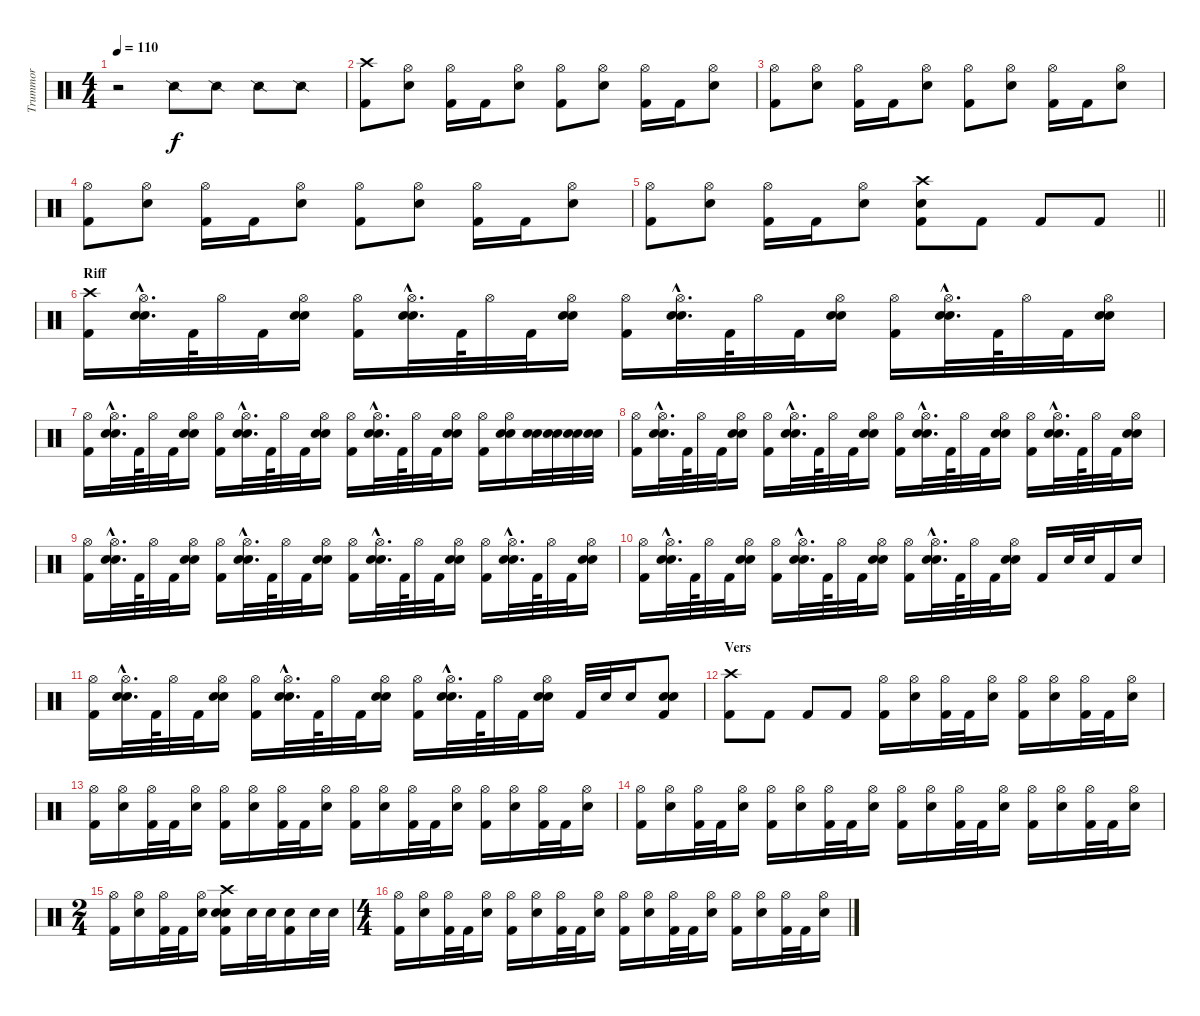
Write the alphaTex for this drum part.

\track ("Trummor" "Trummor") {instrument percussion}
\staff {score}
\articulation defaults
\ts (4 4)
\tempo 110
\clef neutral
\ks c
r.2{dy f} "Snare (side stick) 2".8 "Snare (side stick) 2".8 "Snare (side stick) 2".8 "Snare (side stick) 2".8 |
("Crash high (hit)" "Kick (hit) 2").8 ("Hi-Hat (open)" "Electric Snare (hit)").8 ("Hi-Hat (open)" "Kick (hit) 2").16 "Kick (hit) 2".16 ("Hi-Hat (open)" "Electric Snare (hit)").8 ("Hi-Hat (open)" "Kick (hit) 2").8 ("Hi-Hat (open)" "Electric Snare (hit)").8 ("Hi-Hat (open)" "Kick (hit) 2").16 "Kick (hit) 2".16 ("Hi-Hat (open)" "Electric Snare (hit)").8 |
("Hi-Hat (open)" "Kick (hit) 2").8 ("Hi-Hat (open)" "Electric Snare (hit)").8 ("Hi-Hat (open)" "Kick (hit) 2").16 "Kick (hit) 2".16 ("Hi-Hat (open)" "Electric Snare (hit)").8 ("Hi-Hat (open)" "Kick (hit) 2").8 ("Hi-Hat (open)" "Electric Snare (hit)").8 ("Hi-Hat (open)" "Kick (hit) 2").16 "Kick (hit) 2".16 ("Hi-Hat (open)" "Electric Snare (hit)").8 |
("Hi-Hat (open)" "Kick (hit) 2").8 ("Hi-Hat (open)" "Electric Snare (hit)").8 ("Hi-Hat (open)" "Kick (hit) 2").16 "Kick (hit) 2".16 ("Hi-Hat (open)" "Electric Snare (hit)").8 ("Hi-Hat (open)" "Kick (hit) 2").8 ("Hi-Hat (open)" "Electric Snare (hit)").8 ("Hi-Hat (open)" "Kick (hit) 2").16 "Kick (hit) 2".16 ("Hi-Hat (open)" "Electric Snare (hit)").8 |
\barLineRight lightlight
("Hi-Hat (open)" "Kick (hit) 2").8 ("Hi-Hat (open)" "Electric Snare (hit)").8 ("Hi-Hat (open)" "Kick (hit) 2").16 "Kick (hit) 2".16 ("Hi-Hat (open)" "Electric Snare (hit)").8 ("Crash high (hit)" "Electric Snare (hit)" "Kick (hit) 2").8 "Kick (hit) 2".8 "Kick (hit) 2".8 "Kick (hit) 2".8 |
\section ("" "Riff")
("Crash high (hit)" "Kick (hit) 2").16 ("Hi-Hat (open)"{hac} "Electric Snare (hit)"{hac} "Electric Snare (hit)"{hac}).32{d} "Kick (hit) 2".64 "Hi-Hat (open)".32 "Kick (hit) 2".32 ("Hi-Hat (open)" "Electric Snare (hit)" "Electric Snare (hit)").16 ("Hi-Hat (open)" "Kick (hit) 2").16 ("Hi-Hat (open)"{hac} "Electric Snare (hit)"{hac} "Electric Snare (hit)"{hac}).32{d} "Kick (hit) 2".64 "Hi-Hat (open)".32 "Kick (hit) 2".32 ("Hi-Hat (open)" "Electric Snare (hit)" "Electric Snare (hit)").16 ("Hi-Hat (open)" "Kick (hit) 2").16 ("Hi-Hat (open)"{hac} "Electric Snare (hit)"{hac} "Electric Snare (hit)"{hac}).32{d} "Kick (hit) 2".64 "Hi-Hat (open)".32 "Kick (hit) 2".32 ("Hi-Hat (open)" "Electric Snare (hit)" "Electric Snare (hit)").16 ("Hi-Hat (open)" "Kick (hit) 2").16 ("Hi-Hat (open)"{hac} "Electric Snare (hit)"{hac} "Electric Snare (hit)"{hac}).32{d} "Kick (hit) 2".64 "Hi-Hat (open)".32 "Kick (hit) 2".32 ("Hi-Hat (open)" "Electric Snare (hit)" "Electric Snare (hit)").16 |
("Hi-Hat (open)" "Kick (hit) 2").16 ("Hi-Hat (open)"{hac} "Electric Snare (hit)"{hac} "Electric Snare (hit)"{hac}).32{d} "Kick (hit) 2".64 "Hi-Hat (open)".32 "Kick (hit) 2".32 ("Hi-Hat (open)" "Electric Snare (hit)" "Electric Snare (hit)").16 ("Hi-Hat (open)" "Kick (hit) 2").16 ("Hi-Hat (open)"{hac} "Electric Snare (hit)"{hac} "Electric Snare (hit)"{hac}).32{d} "Kick (hit) 2".64 "Hi-Hat (open)".32 "Kick (hit) 2".32 ("Hi-Hat (open)" "Electric Snare (hit)" "Electric Snare (hit)").16 ("Hi-Hat (open)" "Kick (hit) 2").16 ("Hi-Hat (open)"{hac} "Electric Snare (hit)"{hac} "Electric Snare (hit)"{hac}).32{d} "Kick (hit) 2".64 "Hi-Hat (open)".32 "Kick (hit) 2".32 ("Hi-Hat (open)" "Electric Snare (hit)" "Electric Snare (hit)").16 ("Hi-Hat (open)" "Kick (hit) 2").16 ("Hi-Hat (open)" "Electric Snare (hit)" "Electric Snare (hit)").16 ("Electric Snare (hit)" "Electric Snare (hit)").32 ("Electric Snare (hit)" "Electric Snare (hit)").32 ("Electric Snare (hit)" "Electric Snare (hit)").32 ("Electric Snare (hit)" "Electric Snare (hit)").32 |
("Hi-Hat (open)" "Kick (hit) 2").16 ("Hi-Hat (open)"{hac} "Electric Snare (hit)"{hac} "Electric Snare (hit)"{hac}).32{d} "Kick (hit) 2".64 "Hi-Hat (open)".32 "Kick (hit) 2".32 ("Hi-Hat (open)" "Electric Snare (hit)" "Electric Snare (hit)").16 ("Hi-Hat (open)" "Kick (hit) 2").16 ("Hi-Hat (open)"{hac} "Electric Snare (hit)"{hac} "Electric Snare (hit)"{hac}).32{d} "Kick (hit) 2".64 "Hi-Hat (open)".32 "Kick (hit) 2".32 ("Hi-Hat (open)" "Electric Snare (hit)" "Electric Snare (hit)").16 ("Hi-Hat (open)" "Kick (hit) 2").16 ("Hi-Hat (open)"{hac} "Electric Snare (hit)"{hac} "Electric Snare (hit)"{hac}).32{d} "Kick (hit) 2".64 "Hi-Hat (open)".32 "Kick (hit) 2".32 ("Hi-Hat (open)" "Electric Snare (hit)" "Electric Snare (hit)").16 ("Hi-Hat (open)" "Kick (hit) 2").16 ("Hi-Hat (open)"{hac} "Electric Snare (hit)"{hac} "Electric Snare (hit)"{hac}).32{d} "Kick (hit) 2".64 "Hi-Hat (open)".32 "Kick (hit) 2".32 ("Hi-Hat (open)" "Electric Snare (hit)" "Electric Snare (hit)").16 |
("Hi-Hat (open)" "Kick (hit) 2").16 ("Hi-Hat (open)"{hac} "Electric Snare (hit)"{hac} "Electric Snare (hit)"{hac}).32{d} "Kick (hit) 2".64 "Hi-Hat (open)".32 "Kick (hit) 2".32 ("Hi-Hat (open)" "Electric Snare (hit)" "Electric Snare (hit)").16 ("Hi-Hat (open)" "Kick (hit) 2").16 ("Hi-Hat (open)"{hac} "Electric Snare (hit)"{hac} "Electric Snare (hit)"{hac}).32{d} "Kick (hit) 2".64 "Hi-Hat (open)".32 "Kick (hit) 2".32 ("Hi-Hat (open)" "Electric Snare (hit)" "Electric Snare (hit)").16 ("Hi-Hat (open)" "Kick (hit) 2").16 ("Hi-Hat (open)"{hac} "Electric Snare (hit)"{hac} "Electric Snare (hit)"{hac}).32{d} "Kick (hit) 2".64 "Hi-Hat (open)".32 "Kick (hit) 2".32 ("Hi-Hat (open)" "Electric Snare (hit)" "Electric Snare (hit)").16 ("Hi-Hat (open)" "Kick (hit) 2").16 ("Hi-Hat (open)"{hac} "Electric Snare (hit)"{hac} "Electric Snare (hit)"{hac}).32{d} "Kick (hit) 2".64 "Hi-Hat (open)".32 "Kick (hit) 2".32 ("Hi-Hat (open)" "Electric Snare (hit)" "Electric Snare (hit)").16 |
("Hi-Hat (open)" "Kick (hit) 2").16 ("Hi-Hat (open)"{hac} "Electric Snare (hit)"{hac} "Electric Snare (hit)"{hac}).32{d} "Kick (hit) 2".64 "Hi-Hat (open)".32 "Kick (hit) 2".32 ("Hi-Hat (open)" "Electric Snare (hit)" "Electric Snare (hit)").16 ("Hi-Hat (open)" "Kick (hit) 2").16 ("Hi-Hat (open)"{hac} "Electric Snare (hit)"{hac} "Electric Snare (hit)"{hac}).32{d} "Kick (hit) 2".64 "Hi-Hat (open)".32 "Kick (hit) 2".32 ("Hi-Hat (open)" "Electric Snare (hit)" "Electric Snare (hit)").16 ("Hi-Hat (open)" "Kick (hit) 2").16 ("Hi-Hat (open)"{hac} "Electric Snare (hit)"{hac} "Electric Snare (hit)"{hac}).32{d} "Kick (hit) 2".64 "Hi-Hat (open)".32 "Kick (hit) 2".32 ("Hi-Hat (open)" "Electric Snare (hit)" "Electric Snare (hit)").16 "Kick (hit) 2".16 "Electric Snare (hit)".32 "Electric Snare (hit)".32 "Kick (hit) 2".16 "Electric Snare (hit)".16 |
("Hi-Hat (open)" "Kick (hit) 2").16 ("Hi-Hat (open)"{hac} "Electric Snare (hit)"{hac} "Electric Snare (hit)"{hac}).32{d} "Kick (hit) 2".64 "Hi-Hat (open)".32 "Kick (hit) 2".32 ("Hi-Hat (open)" "Electric Snare (hit)" "Electric Snare (hit)").16 ("Hi-Hat (open)" "Kick (hit) 2").16 ("Hi-Hat (open)"{hac} "Electric Snare (hit)"{hac} "Electric Snare (hit)"{hac}).32{d} "Kick (hit) 2".64 "Hi-Hat (open)".32 "Kick (hit) 2".32 ("Hi-Hat (open)" "Electric Snare (hit)" "Electric Snare (hit)").16 ("Hi-Hat (open)" "Kick (hit) 2").16 ("Hi-Hat (open)"{hac} "Electric Snare (hit)"{hac} "Electric Snare (hit)"{hac}).32{d} "Kick (hit) 2".64 "Hi-Hat (open)".32 "Kick (hit) 2".32 ("Hi-Hat (open)" "Electric Snare (hit)" "Electric Snare (hit)").16 "Kick (hit) 2".32 "Electric Snare (hit)".32 "Electric Snare (hit)".16 ("Electric Snare (hit)" "Electric Snare (hit)" "Kick (hit) 2").8 |
\section ("" "Vers")
("Crash high (hit)" "Kick (hit) 2").8 "Kick (hit) 2".8 "Kick (hit) 2".8 "Kick (hit) 2".8 ("Hi-Hat (open)" "Kick (hit) 2").16 ("Hi-Hat (open)" "Electric Snare (hit)").16 ("Hi-Hat (open)" "Kick (hit) 2").32 "Kick (hit) 2".32 ("Hi-Hat (open)" "Electric Snare (hit)").16 ("Hi-Hat (open)" "Kick (hit) 2").16 ("Hi-Hat (open)" "Electric Snare (hit)").16 ("Hi-Hat (open)" "Kick (hit) 2").32 "Kick (hit) 2".32 ("Hi-Hat (open)" "Electric Snare (hit)").16 |
("Hi-Hat (open)" "Kick (hit) 2").16 ("Hi-Hat (open)" "Electric Snare (hit)").16 ("Hi-Hat (open)" "Kick (hit) 2").32 "Kick (hit) 2".32 ("Hi-Hat (open)" "Electric Snare (hit)").16 ("Hi-Hat (open)" "Kick (hit) 2").16 ("Hi-Hat (open)" "Electric Snare (hit)").16 ("Hi-Hat (open)" "Kick (hit) 2").32 "Kick (hit) 2".32 ("Hi-Hat (open)" "Electric Snare (hit)").16 ("Hi-Hat (open)" "Kick (hit) 2").16 ("Hi-Hat (open)" "Electric Snare (hit)").16 ("Hi-Hat (open)" "Kick (hit) 2").32 "Kick (hit) 2".32 ("Hi-Hat (open)" "Electric Snare (hit)").16 ("Hi-Hat (open)" "Kick (hit) 2").16 ("Hi-Hat (open)" "Electric Snare (hit)").16 ("Hi-Hat (open)" "Kick (hit) 2").32 "Kick (hit) 2".32 ("Hi-Hat (open)" "Electric Snare (hit)").16 |
("Hi-Hat (open)" "Kick (hit) 2").16 ("Hi-Hat (open)" "Electric Snare (hit)").16 ("Hi-Hat (open)" "Kick (hit) 2").32 "Kick (hit) 2".32 ("Hi-Hat (open)" "Electric Snare (hit)").16 ("Hi-Hat (open)" "Kick (hit) 2").16 ("Hi-Hat (open)" "Electric Snare (hit)").16 ("Hi-Hat (open)" "Kick (hit) 2").32 "Kick (hit) 2".32 ("Hi-Hat (open)" "Electric Snare (hit)").16 ("Hi-Hat (open)" "Kick (hit) 2").16 ("Hi-Hat (open)" "Electric Snare (hit)").16 ("Hi-Hat (open)" "Kick (hit) 2").32 "Kick (hit) 2".32 ("Hi-Hat (open)" "Electric Snare (hit)").16 ("Hi-Hat (open)" "Kick (hit) 2").16 ("Hi-Hat (open)" "Electric Snare (hit)").16 ("Hi-Hat (open)" "Kick (hit) 2").32 "Kick (hit) 2".32 ("Hi-Hat (open)" "Electric Snare (hit)").16 |
\ts (2 4)
("Hi-Hat (open)" "Kick (hit) 2").16 ("Hi-Hat (open)" "Electric Snare (hit)").16 ("Hi-Hat (open)" "Kick (hit) 2").32 "Kick (hit) 2".32 ("Hi-Hat (open)" "Electric Snare (hit)").16 ("Crash high (hit)" "Electric Snare (hit)" "Electric Snare (hit)" "Kick (hit) 2").16 "Electric Snare (hit)".32 "Electric Snare (hit)".32 ("Electric Snare (hit)" "Kick (hit) 2").16 "Electric Snare (hit)".32 "Electric Snare (hit)".32 |
\ts (4 4)
("Hi-Hat (open)" "Kick (hit) 2").16 ("Hi-Hat (open)" "Electric Snare (hit)").16 ("Hi-Hat (open)" "Kick (hit) 2").32 "Kick (hit) 2".32 ("Hi-Hat (open)" "Electric Snare (hit)").16 ("Hi-Hat (open)" "Kick (hit) 2").16 ("Hi-Hat (open)" "Electric Snare (hit)").16 ("Hi-Hat (open)" "Kick (hit) 2").32 "Kick (hit) 2".32 ("Hi-Hat (open)" "Electric Snare (hit)").16 ("Hi-Hat (open)" "Kick (hit) 2").16 ("Hi-Hat (open)" "Electric Snare (hit)").16 ("Hi-Hat (open)" "Kick (hit) 2").32 "Kick (hit) 2".32 ("Hi-Hat (open)" "Electric Snare (hit)").16 ("Hi-Hat (open)" "Kick (hit) 2").16 ("Hi-Hat (open)" "Electric Snare (hit)").16 ("Hi-Hat (open)" "Kick (hit) 2").32 "Kick (hit) 2".32 ("Hi-Hat (open)" "Electric Snare (hit)").16
